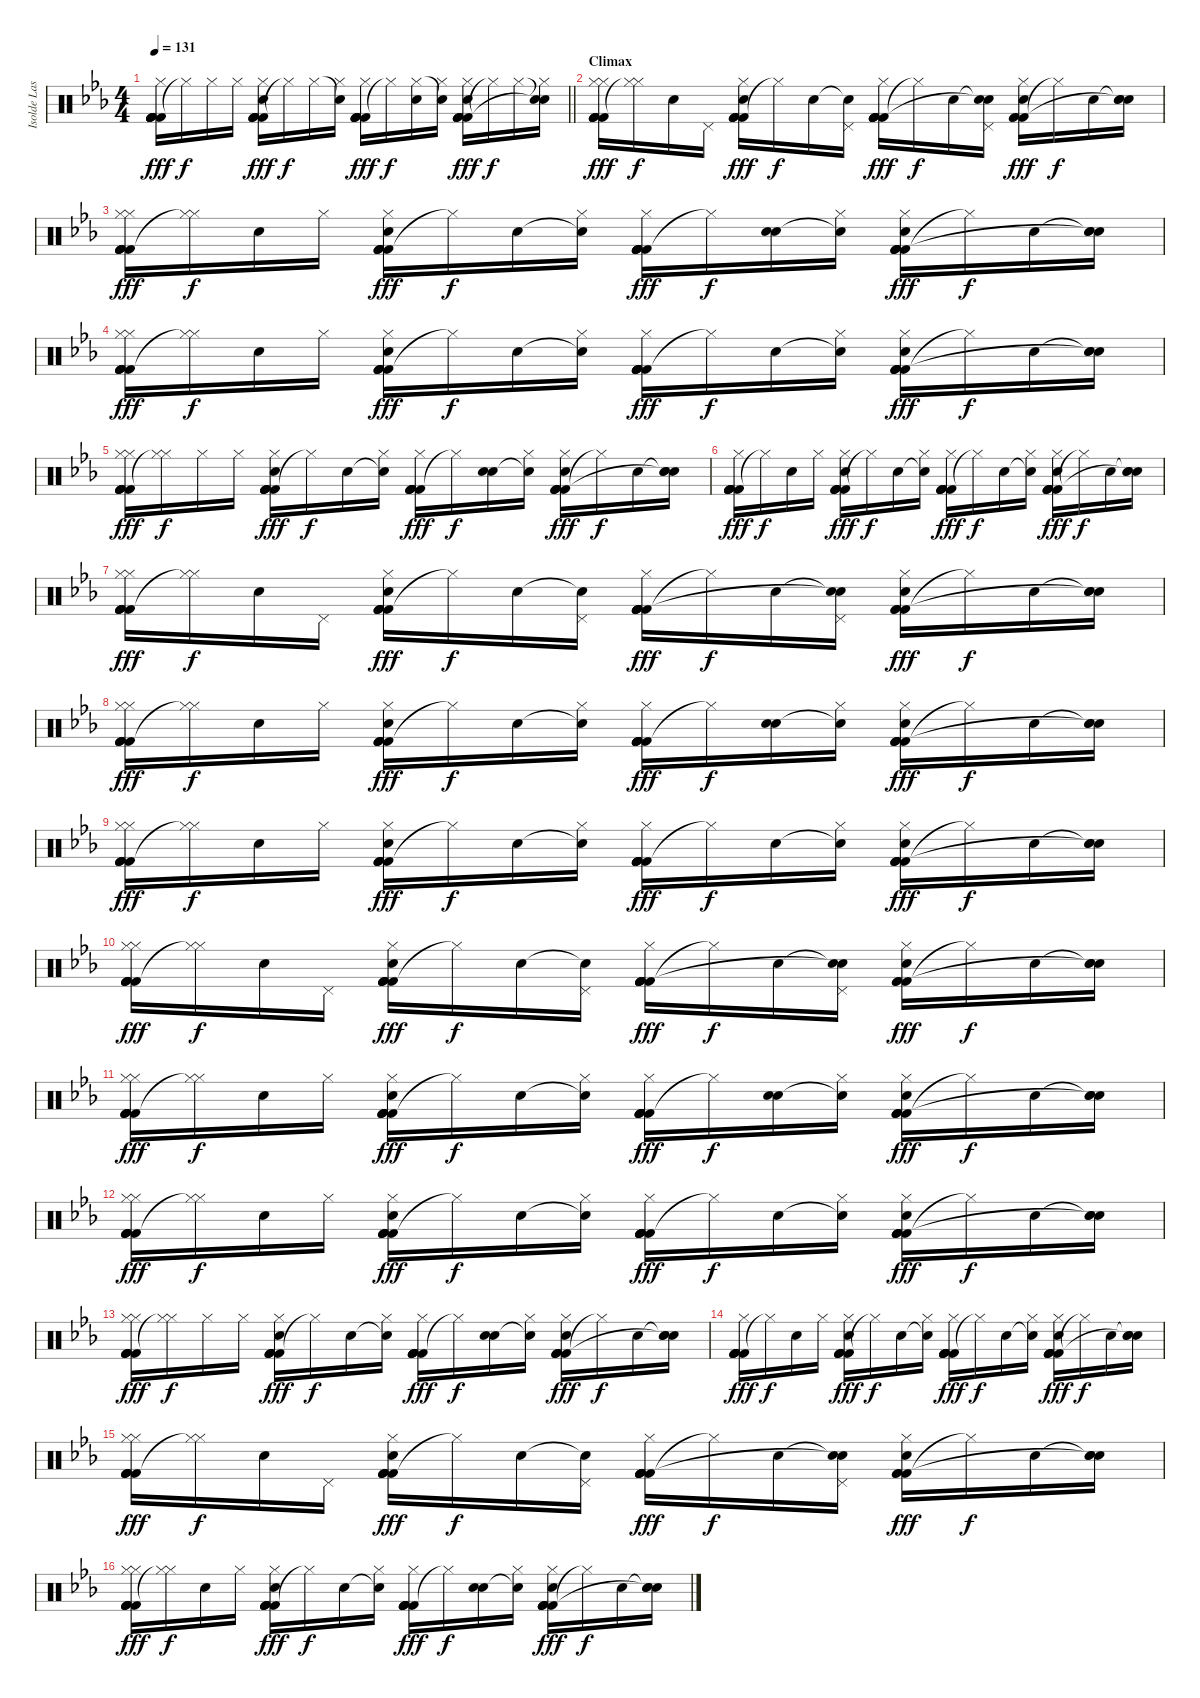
\track ("Isolde Lasoen (Percussion)" "Isolde Las") {instrument percussion}
\staff {score}
\articulation defaults
\ts (4 4)
\tempo 131
\clef neutral
\barLineRight lightlight
\ks cminor
("Kick (hit) 2" "Kick (hit) 2" "Kick (hit) 2" "Kick (hit) 2" "Hi-Hat (closed)" "Kick (hit) 2").16{dy fff} "Hi-Hat (closed)"{t}.16{dy f} "Hi-Hat (closed)".16 "Hi-Hat (closed)".16 ("Kick (hit) 2" "Kick (hit) 2" "Kick (hit) 2" "Kick (hit) 2" "Hi-Hat (closed)" "Hand Clap (hit)").16{dy fff} "Hi-Hat (closed)"{t}.16{dy f} "Hi-Hat (closed)".16 ("Snare (hit)"{t} "Hi-Hat (closed)").16 ("Kick (hit) 2" "Kick (hit) 2" "Kick (hit) 2" "Kick (hit) 2" "Hi-Hat (closed)" "Kick (hit) 2").16{dy fff} "Hi-Hat (closed)"{t}.16{dy f} ("Hi-Hat (closed)" "Hand Clap (hit)").16 ("Snare (hit)"{t} "Hi-Hat (closed)").16 ("Kick (hit) 2" "Kick (hit) 2" "Kick (hit) 2" "Kick (hit) 2" "Hi-Hat (closed)" "Hand Clap (hit)").16{dy fff} "Hi-Hat (closed)"{t}.16{dy f} "Hi-Hat (closed)".16 ("Snare (hit)"{t} "Hi-Hat (closed)" "Snare (hit)"{t}).16 |
\section ("" "Climax")
("Hi-Hat (closed)" "Kick (hit) 2" "Kick (hit) 2" "Kick (hit) 2" "Hi-Hat (closed)" "Kick (hit) 2").16{dy fff} ("Hi-Hat (closed)" "Hi-Hat (closed)"{t}).16{dy f} "Hand Clap (hit)".16 "Pedal Hi-Hat (hit)".16 ("Kick (hit) 2" "Kick (hit) 2" "Kick (hit) 2" "Kick (hit) 2" "Hi-Hat (closed)" "Hand Clap (hit)").16{dy fff} "Hi-Hat (closed)"{t}.16{dy f} "Hand Clap (hit)".16 ("Snare (hit)"{t} "Pedal Hi-Hat (hit)").16 ("Kick (hit) 2" "Kick (hit) 2" "Kick (hit) 2" "Kick (hit) 2" "Hi-Hat (closed)" "Kick (hit) 2").16{dy fff} "Hi-Hat (closed)"{t}.16{dy f} "Hand Clap (hit)".16 ("Snare (hit)"{t} "Snare (hit)"{t} "Pedal Hi-Hat (hit)").16 ("Kick (hit) 2" "Kick (hit) 2" "Kick (hit) 2" "Hi-Hat (closed)" "Hand Clap (hit)").16{dy fff} "Hi-Hat (closed)"{t}.16{dy f} "Hand Clap (hit)".16 ("Snare (hit)"{t} "Hand Clap (hit)" "Snare (hit)"{t}).16 |
("Hi-Hat (closed)" "Kick (hit) 2" "Kick (hit) 2" "Kick (hit) 2" "Hi-Hat (closed)" "Kick (hit) 2").16{dy fff} ("Hi-Hat (closed)" "Hi-Hat (closed)"{t}).16{dy f} "Hand Clap (hit)".16 "Hi-Hat (closed)".16 ("Kick (hit) 2" "Kick (hit) 2" "Kick (hit) 2" "Kick (hit) 2" "Hi-Hat (closed)" "Hand Clap (hit)").16{dy fff} "Hi-Hat (closed)"{t}.16{dy f} "Hand Clap (hit)".16 ("Snare (hit)"{t} "Hi-Hat (closed)").16 ("Kick (hit) 2" "Kick (hit) 2" "Kick (hit) 2" "Kick (hit) 2" "Hi-Hat (closed)" "Kick (hit) 2").16{dy fff} "Hi-Hat (closed)"{t}.16{dy f} ("Hand Clap (hit)" "Hand Clap (hit)").16 ("Snare (hit)"{t} "Hi-Hat (closed)").16 ("Kick (hit) 2" "Kick (hit) 2" "Kick (hit) 2" "Kick (hit) 2" "Hi-Hat (closed)" "Hand Clap (hit)").16{dy fff} "Hi-Hat (closed)"{t}.16{dy f} "Hand Clap (hit)".16 ("Snare (hit)"{t} "Hand Clap (hit)" "Snare (hit)"{t}).16 |
("Hi-Hat (closed)" "Kick (hit) 2" "Kick (hit) 2" "Kick (hit) 2" "Hi-Hat (closed)" "Kick (hit) 2").16{dy fff} ("Hi-Hat (closed)" "Hi-Hat (closed)"{t}).16{dy f} "Hand Clap (hit)".16 "Hi-Hat (closed)".16 ("Kick (hit) 2" "Kick (hit) 2" "Kick (hit) 2" "Kick (hit) 2" "Hi-Hat (closed)" "Hand Clap (hit)").16{dy fff} "Hi-Hat (closed)"{t}.16{dy f} "Hand Clap (hit)".16 ("Snare (hit)"{t} "Hi-Hat (closed)").16 ("Kick (hit) 2" "Kick (hit) 2" "Kick (hit) 2" "Kick (hit) 2" "Hi-Hat (closed)" "Kick (hit) 2").16{dy fff} "Hi-Hat (closed)"{t}.16{dy f} "Hand Clap (hit)".16 ("Snare (hit)"{t} "Hi-Hat (closed)").16 ("Kick (hit) 2" "Kick (hit) 2" "Kick (hit) 2" "Kick (hit) 2" "Hi-Hat (closed)" "Hand Clap (hit)").16{dy fff} "Hi-Hat (closed)"{t}.16{dy f} "Hand Clap (hit)".16 ("Snare (hit)"{t} "Hand Clap (hit)" "Snare (hit)"{t}).16 |
("Hi-Hat (closed)" "Kick (hit) 2" "Kick (hit) 2" "Kick (hit) 2" "Hi-Hat (closed)" "Kick (hit) 2").16{dy fff} ("Hi-Hat (closed)" "Hi-Hat (closed)"{t}).16{dy f} "Hi-Hat (closed)".16 "Hi-Hat (closed)".16 ("Kick (hit) 2" "Kick (hit) 2" "Kick (hit) 2" "Kick (hit) 2" "Hi-Hat (closed)" "Hand Clap (hit)").16{dy fff} "Hi-Hat (closed)"{t}.16{dy f} "Hand Clap (hit)".16 ("Snare (hit)"{t} "Hi-Hat (closed)").16 ("Kick (hit) 2" "Kick (hit) 2" "Kick (hit) 2" "Kick (hit) 2" "Hi-Hat (closed)" "Kick (hit) 2").16{dy fff} "Hi-Hat (closed)"{t}.16{dy f} ("Hand Clap (hit)" "Hand Clap (hit)").16 ("Snare (hit)"{t} "Hi-Hat (closed)").16 ("Kick (hit) 2" "Kick (hit) 2" "Kick (hit) 2" "Kick (hit) 2" "Hi-Hat (closed)" "Hand Clap (hit)").16{dy fff} "Hi-Hat (closed)"{t}.16{dy f} "Hand Clap (hit)".16 ("Snare (hit)"{t} "Hand Clap (hit)" "Snare (hit)"{t}).16 |
("Kick (hit) 2" "Kick (hit) 2" "Kick (hit) 2" "Kick (hit) 2" "Hi-Hat (closed)" "Kick (hit) 2").16{dy fff} "Hi-Hat (closed)"{t}.16{dy f} "Hand Clap (hit)".16 "Hi-Hat (closed)".16 ("Kick (hit) 2" "Kick (hit) 2" "Kick (hit) 2" "Kick (hit) 2" "Hi-Hat (closed)" "Hand Clap (hit)").16{dy fff} "Hi-Hat (closed)"{t}.16{dy f} "Hand Clap (hit)".16 ("Snare (hit)"{t} "Hi-Hat (closed)").16 ("Kick (hit) 2" "Kick (hit) 2" "Kick (hit) 2" "Kick (hit) 2" "Hi-Hat (closed)" "Kick (hit) 2").16{dy fff} "Hi-Hat (closed)"{t}.16{dy f} "Hand Clap (hit)".16 ("Snare (hit)"{t} "Hi-Hat (closed)").16 ("Kick (hit) 2" "Kick (hit) 2" "Kick (hit) 2" "Kick (hit) 2" "Hi-Hat (closed)" "Hand Clap (hit)").16{dy fff} "Hi-Hat (closed)"{t}.16{dy f} "Hand Clap (hit)".16 ("Snare (hit)"{t} "Hand Clap (hit)" "Snare (hit)"{t}).16 |
("Hi-Hat (closed)" "Kick (hit) 2" "Kick (hit) 2" "Kick (hit) 2" "Hi-Hat (closed)" "Kick (hit) 2").16{dy fff} ("Hi-Hat (closed)" "Hi-Hat (closed)"{t}).16{dy f} "Hand Clap (hit)".16 "Pedal Hi-Hat (hit)".16 ("Kick (hit) 2" "Kick (hit) 2" "Kick (hit) 2" "Kick (hit) 2" "Hi-Hat (closed)" "Hand Clap (hit)").16{dy fff} "Hi-Hat (closed)"{t}.16{dy f} "Hand Clap (hit)".16 ("Snare (hit)"{t} "Pedal Hi-Hat (hit)").16 ("Kick (hit) 2" "Kick (hit) 2" "Kick (hit) 2" "Kick (hit) 2" "Hi-Hat (closed)" "Kick (hit) 2").16{dy fff} "Hi-Hat (closed)"{t}.16{dy f} "Hand Clap (hit)".16 ("Snare (hit)"{t} "Snare (hit)"{t} "Pedal Hi-Hat (hit)").16 ("Kick (hit) 2" "Kick (hit) 2" "Kick (hit) 2" "Hi-Hat (closed)" "Hand Clap (hit)").16{dy fff} "Hi-Hat (closed)"{t}.16{dy f} "Hand Clap (hit)".16 ("Snare (hit)"{t} "Hand Clap (hit)" "Snare (hit)"{t}).16 |
("Hi-Hat (closed)" "Kick (hit) 2" "Kick (hit) 2" "Kick (hit) 2" "Hi-Hat (closed)" "Kick (hit) 2").16{dy fff} ("Hi-Hat (closed)" "Hi-Hat (closed)"{t}).16{dy f} "Hand Clap (hit)".16 "Hi-Hat (closed)".16 ("Kick (hit) 2" "Kick (hit) 2" "Kick (hit) 2" "Kick (hit) 2" "Hi-Hat (closed)" "Hand Clap (hit)").16{dy fff} "Hi-Hat (closed)"{t}.16{dy f} "Hand Clap (hit)".16 ("Snare (hit)"{t} "Hi-Hat (closed)").16 ("Kick (hit) 2" "Kick (hit) 2" "Kick (hit) 2" "Kick (hit) 2" "Hi-Hat (closed)" "Kick (hit) 2").16{dy fff} "Hi-Hat (closed)"{t}.16{dy f} ("Hand Clap (hit)" "Hand Clap (hit)").16 ("Snare (hit)"{t} "Hi-Hat (closed)").16 ("Kick (hit) 2" "Kick (hit) 2" "Kick (hit) 2" "Kick (hit) 2" "Hi-Hat (closed)" "Hand Clap (hit)").16{dy fff} "Hi-Hat (closed)"{t}.16{dy f} "Hand Clap (hit)".16 ("Snare (hit)"{t} "Hand Clap (hit)" "Snare (hit)"{t}).16 |
("Hi-Hat (closed)" "Kick (hit) 2" "Kick (hit) 2" "Kick (hit) 2" "Hi-Hat (closed)" "Kick (hit) 2").16{dy fff} ("Hi-Hat (closed)" "Hi-Hat (closed)"{t}).16{dy f} "Hand Clap (hit)".16 "Hi-Hat (closed)".16 ("Kick (hit) 2" "Kick (hit) 2" "Kick (hit) 2" "Kick (hit) 2" "Hi-Hat (closed)" "Hand Clap (hit)").16{dy fff} "Hi-Hat (closed)"{t}.16{dy f} "Hand Clap (hit)".16 ("Snare (hit)"{t} "Hi-Hat (closed)").16 ("Kick (hit) 2" "Kick (hit) 2" "Kick (hit) 2" "Kick (hit) 2" "Hi-Hat (closed)" "Kick (hit) 2").16{dy fff} "Hi-Hat (closed)"{t}.16{dy f} "Hand Clap (hit)".16 ("Snare (hit)"{t} "Hi-Hat (closed)").16 ("Kick (hit) 2" "Kick (hit) 2" "Kick (hit) 2" "Kick (hit) 2" "Hi-Hat (closed)" "Hand Clap (hit)").16{dy fff} "Hi-Hat (closed)"{t}.16{dy f} "Hand Clap (hit)".16 ("Snare (hit)"{t} "Hand Clap (hit)" "Snare (hit)"{t}).16 |
("Hi-Hat (closed)" "Kick (hit) 2" "Kick (hit) 2" "Kick (hit) 2" "Hi-Hat (closed)" "Kick (hit) 2").16{dy fff} ("Hi-Hat (closed)" "Hi-Hat (closed)"{t}).16{dy f} "Hand Clap (hit)".16 "Pedal Hi-Hat (hit)".16 ("Kick (hit) 2" "Kick (hit) 2" "Kick (hit) 2" "Kick (hit) 2" "Hi-Hat (closed)" "Hand Clap (hit)").16{dy fff} "Hi-Hat (closed)"{t}.16{dy f} "Hand Clap (hit)".16 ("Snare (hit)"{t} "Pedal Hi-Hat (hit)").16 ("Kick (hit) 2" "Kick (hit) 2" "Kick (hit) 2" "Kick (hit) 2" "Hi-Hat (closed)" "Kick (hit) 2").16{dy fff} "Hi-Hat (closed)"{t}.16{dy f} "Hand Clap (hit)".16 ("Snare (hit)"{t} "Snare (hit)"{t} "Pedal Hi-Hat (hit)").16 ("Kick (hit) 2" "Kick (hit) 2" "Kick (hit) 2" "Hi-Hat (closed)" "Hand Clap (hit)").16{dy fff} "Hi-Hat (closed)"{t}.16{dy f} "Hand Clap (hit)".16 ("Snare (hit)"{t} "Hand Clap (hit)" "Snare (hit)"{t}).16 |
("Hi-Hat (closed)" "Kick (hit) 2" "Kick (hit) 2" "Kick (hit) 2" "Hi-Hat (closed)" "Kick (hit) 2").16{dy fff} ("Hi-Hat (closed)" "Hi-Hat (closed)"{t}).16{dy f} "Hand Clap (hit)".16 "Hi-Hat (closed)".16 ("Kick (hit) 2" "Kick (hit) 2" "Kick (hit) 2" "Kick (hit) 2" "Hi-Hat (closed)" "Hand Clap (hit)").16{dy fff} "Hi-Hat (closed)"{t}.16{dy f} "Hand Clap (hit)".16 ("Snare (hit)"{t} "Hi-Hat (closed)").16 ("Kick (hit) 2" "Kick (hit) 2" "Kick (hit) 2" "Kick (hit) 2" "Hi-Hat (closed)" "Kick (hit) 2").16{dy fff} "Hi-Hat (closed)"{t}.16{dy f} ("Hand Clap (hit)" "Hand Clap (hit)").16 ("Snare (hit)"{t} "Hi-Hat (closed)").16 ("Kick (hit) 2" "Kick (hit) 2" "Kick (hit) 2" "Kick (hit) 2" "Hi-Hat (closed)" "Hand Clap (hit)").16{dy fff} "Hi-Hat (closed)"{t}.16{dy f} "Hand Clap (hit)".16 ("Snare (hit)"{t} "Hand Clap (hit)" "Snare (hit)"{t}).16 |
("Hi-Hat (closed)" "Kick (hit) 2" "Kick (hit) 2" "Kick (hit) 2" "Hi-Hat (closed)" "Kick (hit) 2").16{dy fff} ("Hi-Hat (closed)" "Hi-Hat (closed)"{t}).16{dy f} "Hand Clap (hit)".16 "Hi-Hat (closed)".16 ("Kick (hit) 2" "Kick (hit) 2" "Kick (hit) 2" "Kick (hit) 2" "Hi-Hat (closed)" "Hand Clap (hit)").16{dy fff} "Hi-Hat (closed)"{t}.16{dy f} "Hand Clap (hit)".16 ("Snare (hit)"{t} "Hi-Hat (closed)").16 ("Kick (hit) 2" "Kick (hit) 2" "Kick (hit) 2" "Kick (hit) 2" "Hi-Hat (closed)" "Kick (hit) 2").16{dy fff} "Hi-Hat (closed)"{t}.16{dy f} "Hand Clap (hit)".16 ("Snare (hit)"{t} "Hi-Hat (closed)").16 ("Kick (hit) 2" "Kick (hit) 2" "Kick (hit) 2" "Kick (hit) 2" "Hi-Hat (closed)" "Hand Clap (hit)").16{dy fff} "Hi-Hat (closed)"{t}.16{dy f} "Hand Clap (hit)".16 ("Snare (hit)"{t} "Hand Clap (hit)" "Snare (hit)"{t}).16 |
("Hi-Hat (closed)" "Kick (hit) 2" "Kick (hit) 2" "Kick (hit) 2" "Hi-Hat (closed)" "Kick (hit) 2").16{dy fff} ("Hi-Hat (closed)" "Hi-Hat (closed)"{t}).16{dy f} "Hi-Hat (closed)".16 "Hi-Hat (closed)".16 ("Kick (hit) 2" "Kick (hit) 2" "Kick (hit) 2" "Kick (hit) 2" "Hi-Hat (closed)" "Hand Clap (hit)").16{dy fff} "Hi-Hat (closed)"{t}.16{dy f} "Hand Clap (hit)".16 ("Snare (hit)"{t} "Hi-Hat (closed)").16 ("Kick (hit) 2" "Kick (hit) 2" "Kick (hit) 2" "Kick (hit) 2" "Hi-Hat (closed)" "Kick (hit) 2").16{dy fff} "Hi-Hat (closed)"{t}.16{dy f} ("Hand Clap (hit)" "Hand Clap (hit)").16 ("Snare (hit)"{t} "Hi-Hat (closed)").16 ("Kick (hit) 2" "Kick (hit) 2" "Kick (hit) 2" "Kick (hit) 2" "Hi-Hat (closed)" "Hand Clap (hit)").16{dy fff} "Hi-Hat (closed)"{t}.16{dy f} "Hand Clap (hit)".16 ("Snare (hit)"{t} "Hand Clap (hit)" "Snare (hit)"{t}).16 |
("Kick (hit) 2" "Kick (hit) 2" "Kick (hit) 2" "Kick (hit) 2" "Hi-Hat (closed)" "Kick (hit) 2").16{dy fff} "Hi-Hat (closed)"{t}.16{dy f} "Hand Clap (hit)".16 "Hi-Hat (closed)".16 ("Kick (hit) 2" "Kick (hit) 2" "Kick (hit) 2" "Kick (hit) 2" "Hi-Hat (closed)" "Hand Clap (hit)").16{dy fff} "Hi-Hat (closed)"{t}.16{dy f} "Hand Clap (hit)".16 ("Snare (hit)"{t} "Hi-Hat (closed)").16 ("Kick (hit) 2" "Kick (hit) 2" "Kick (hit) 2" "Kick (hit) 2" "Hi-Hat (closed)" "Kick (hit) 2").16{dy fff} "Hi-Hat (closed)"{t}.16{dy f} "Hand Clap (hit)".16 ("Snare (hit)"{t} "Hi-Hat (closed)").16 ("Kick (hit) 2" "Kick (hit) 2" "Kick (hit) 2" "Kick (hit) 2" "Hi-Hat (closed)" "Hand Clap (hit)").16{dy fff} "Hi-Hat (closed)"{t}.16{dy f} "Hand Clap (hit)".16 ("Snare (hit)"{t} "Hand Clap (hit)" "Snare (hit)"{t}).16 |
("Hi-Hat (closed)" "Kick (hit) 2" "Kick (hit) 2" "Kick (hit) 2" "Hi-Hat (closed)" "Kick (hit) 2").16{dy fff} ("Hi-Hat (closed)" "Hi-Hat (closed)"{t}).16{dy f} "Hand Clap (hit)".16 "Pedal Hi-Hat (hit)".16 ("Kick (hit) 2" "Kick (hit) 2" "Kick (hit) 2" "Kick (hit) 2" "Hi-Hat (closed)" "Hand Clap (hit)").16{dy fff} "Hi-Hat (closed)"{t}.16{dy f} "Hand Clap (hit)".16 ("Snare (hit)"{t} "Pedal Hi-Hat (hit)").16 ("Kick (hit) 2" "Kick (hit) 2" "Kick (hit) 2" "Kick (hit) 2" "Hi-Hat (closed)" "Kick (hit) 2").16{dy fff} "Hi-Hat (closed)"{t}.16{dy f} "Hand Clap (hit)".16 ("Snare (hit)"{t} "Snare (hit)"{t} "Pedal Hi-Hat (hit)").16 ("Kick (hit) 2" "Kick (hit) 2" "Kick (hit) 2" "Hi-Hat (closed)" "Hand Clap (hit)").16{dy fff} "Hi-Hat (closed)"{t}.16{dy f} "Hand Clap (hit)".16 ("Snare (hit)"{t} "Hand Clap (hit)" "Snare (hit)"{t}).16 |
("Hi-Hat (closed)" "Kick (hit) 2" "Kick (hit) 2" "Kick (hit) 2" "Hi-Hat (closed)" "Kick (hit) 2").16{dy fff} ("Hi-Hat (closed)" "Hi-Hat (closed)"{t}).16{dy f} "Hand Clap (hit)".16 "Hi-Hat (closed)".16 ("Kick (hit) 2" "Kick (hit) 2" "Kick (hit) 2" "Kick (hit) 2" "Hi-Hat (closed)" "Hand Clap (hit)").16{dy fff} "Hi-Hat (closed)"{t}.16{dy f} "Hand Clap (hit)".16 ("Snare (hit)"{t} "Hi-Hat (closed)").16 ("Kick (hit) 2" "Kick (hit) 2" "Kick (hit) 2" "Kick (hit) 2" "Hi-Hat (closed)" "Kick (hit) 2").16{dy fff} "Hi-Hat (closed)"{t}.16{dy f} ("Hand Clap (hit)" "Hand Clap (hit)").16 ("Snare (hit)"{t} "Hi-Hat (closed)").16 ("Kick (hit) 2" "Kick (hit) 2" "Kick (hit) 2" "Kick (hit) 2" "Hi-Hat (closed)" "Hand Clap (hit)").16{dy fff} "Hi-Hat (closed)"{t}.16{dy f} "Hand Clap (hit)".16 ("Snare (hit)"{t} "Hand Clap (hit)" "Snare (hit)"{t}).16
